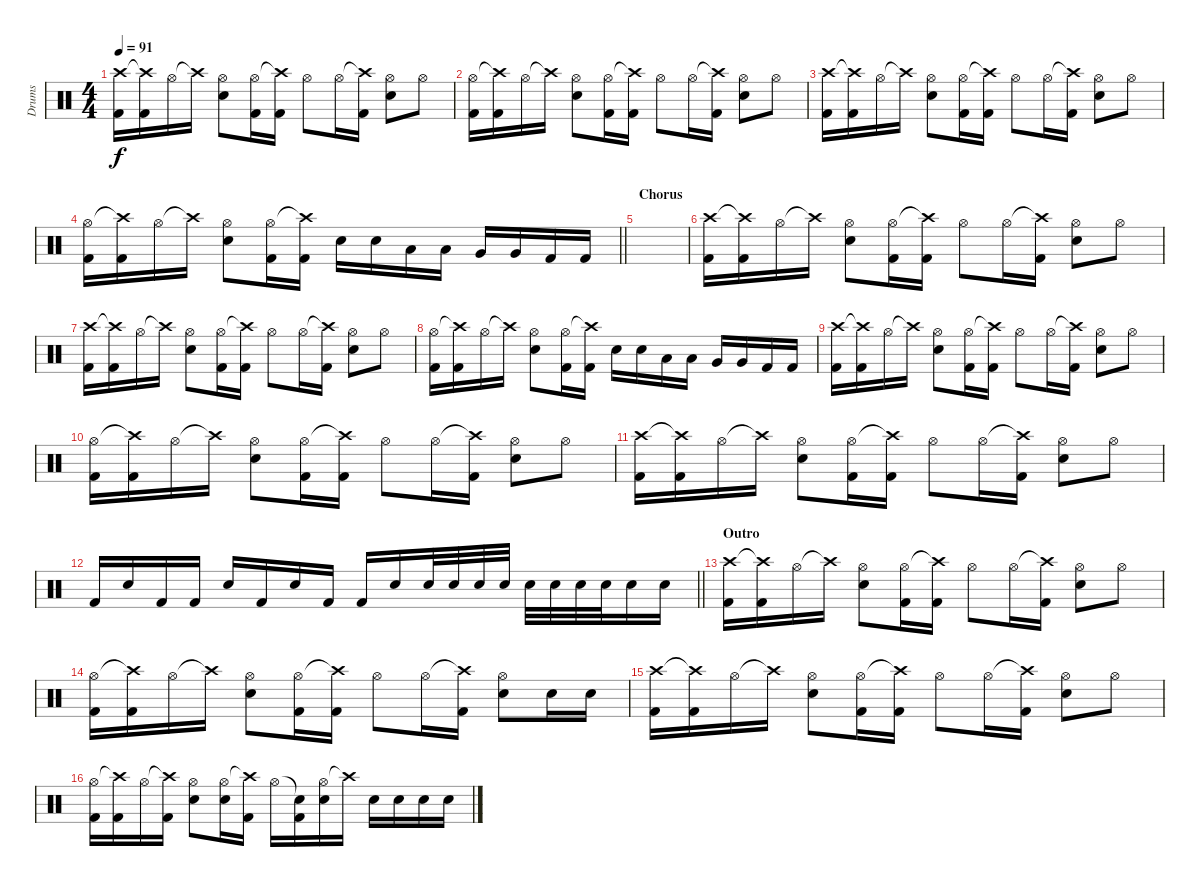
\track ("Drums" "Drums") {instrument percussion}
\staff {score}
\articulation defaults
\ts (4 4)
\tempo 91
\clef neutral
\ks c
("Crash high (hit)" "Kick (hit) 2").16{dy f} ("Crash high (hit)"{t} "Kick (hit) 2").16 "Hi-Hat (open)".16 "Crash high (hit)"{t}.16 ("Hi-Hat (open)" "Electric Snare (hit)").8 ("Hi-Hat (open)" "Kick (hit) 2").16 ("Crash high (hit)"{t} "Kick (hit) 2").16 "Hi-Hat (open)".8 "Hi-Hat (open)".16 ("Crash high (hit)"{t} "Kick (hit) 2").16 ("Hi-Hat (open)" "Electric Snare (hit)").8 "Hi-Hat (open)".8 |
("Hi-Hat (open)" "Kick (hit) 2").16 ("Crash high (hit)"{t} "Kick (hit) 2").16 "Hi-Hat (open)".16 "Crash high (hit)"{t}.16 ("Hi-Hat (open)" "Electric Snare (hit)").8 ("Hi-Hat (open)" "Kick (hit) 2").16 ("Crash high (hit)"{t} "Kick (hit) 2").16 "Hi-Hat (open)".8 "Hi-Hat (open)".16 ("Crash high (hit)"{t} "Kick (hit) 2").16 ("Hi-Hat (open)" "Electric Snare (hit)").8 "Hi-Hat (open)".8 |
("Crash high (hit)" "Kick (hit) 2").16 ("Crash high (hit)"{t} "Kick (hit) 2").16 "Hi-Hat (open)".16 "Crash high (hit)"{t}.16 ("Hi-Hat (open)" "Electric Snare (hit)").8 ("Hi-Hat (open)" "Kick (hit) 2").16 ("Crash high (hit)"{t} "Kick (hit) 2").16 "Hi-Hat (open)".8 "Hi-Hat (open)".16 ("Crash high (hit)"{t} "Kick (hit) 2").16 ("Hi-Hat (open)" "Electric Snare (hit)").8 "Hi-Hat (open)".8 |
\barLineRight lightlight
("Hi-Hat (open)" "Kick (hit) 2").16 ("Crash high (hit)"{t} "Kick (hit) 2").16 "Hi-Hat (open)".16 "Crash high (hit)"{t}.16 ("Hi-Hat (open)" "Electric Snare (hit)").8 ("Hi-Hat (open)" "Kick (hit) 2").16 ("Crash high (hit)"{t} "Kick (hit) 2").16 "Electric Snare (hit)".16 "Electric Snare (hit)".16 "Low Tom (hit)".16 "Low Tom (hit)".16 "Very Low Tom (hit)".16 "Very Low Tom (hit)".16 "Kick (hit) 2".16 "Kick (hit) 2".16 |
\section ("" "Chorus")
|
("Crash high (hit)" "Kick (hit) 2").16 ("Crash high (hit)"{t} "Kick (hit) 2").16 "Hi-Hat (open)".16 "Crash high (hit)"{t}.16 ("Hi-Hat (open)" "Electric Snare (hit)").8 ("Hi-Hat (open)" "Kick (hit) 2").16 ("Crash high (hit)"{t} "Kick (hit) 2").16 "Hi-Hat (open)".8 "Hi-Hat (open)".16 ("Crash high (hit)"{t} "Kick (hit) 2").16 ("Hi-Hat (open)" "Electric Snare (hit)").8 "Hi-Hat (open)".8 |
("Crash high (hit)" "Kick (hit) 2").16 ("Crash high (hit)"{t} "Kick (hit) 2").16 "Hi-Hat (open)".16 "Crash high (hit)"{t}.16 ("Hi-Hat (open)" "Electric Snare (hit)").8 ("Hi-Hat (open)" "Kick (hit) 2").16 ("Crash high (hit)"{t} "Kick (hit) 2").16 "Hi-Hat (open)".8 "Hi-Hat (open)".16 ("Crash high (hit)"{t} "Kick (hit) 2").16 ("Hi-Hat (open)" "Electric Snare (hit)").8 "Hi-Hat (open)".8 |
("Hi-Hat (open)" "Kick (hit) 2").16 ("Crash high (hit)"{t} "Kick (hit) 2").16 "Hi-Hat (open)".16 "Crash high (hit)"{t}.16 ("Hi-Hat (open)" "Electric Snare (hit)").8 ("Hi-Hat (open)" "Kick (hit) 2").16 ("Crash high (hit)"{t} "Kick (hit) 2").16 "Electric Snare (hit)".16 "Electric Snare (hit)".16 "Low Tom (hit)".16 "Low Tom (hit)".16 "Very Low Tom (hit)".16 "Very Low Tom (hit)".16 "Kick (hit) 2".16 "Kick (hit) 2".16 |
("Crash high (hit)" "Kick (hit) 2").16 ("Crash high (hit)"{t} "Kick (hit) 2").16 "Hi-Hat (open)".16 "Crash high (hit)"{t}.16 ("Hi-Hat (open)" "Electric Snare (hit)").8 ("Hi-Hat (open)" "Kick (hit) 2").16 ("Crash high (hit)"{t} "Kick (hit) 2").16 "Hi-Hat (open)".8 "Hi-Hat (open)".16 ("Crash high (hit)"{t} "Kick (hit) 2").16 ("Hi-Hat (open)" "Electric Snare (hit)").8 "Hi-Hat (open)".8 |
("Hi-Hat (open)" "Kick (hit) 2").16 ("Crash high (hit)"{t} "Kick (hit) 2").16 "Hi-Hat (open)".16 "Crash high (hit)"{t}.16 ("Hi-Hat (open)" "Electric Snare (hit)").8 ("Hi-Hat (open)" "Kick (hit) 2").16 ("Crash high (hit)"{t} "Kick (hit) 2").16 "Hi-Hat (open)".8 "Hi-Hat (open)".16 ("Crash high (hit)"{t} "Kick (hit) 2").16 ("Hi-Hat (open)" "Electric Snare (hit)").8 "Hi-Hat (open)".8 |
("Crash high (hit)" "Kick (hit) 2").16 ("Crash high (hit)"{t} "Kick (hit) 2").16 "Hi-Hat (open)".16 "Crash high (hit)"{t}.16 ("Hi-Hat (open)" "Electric Snare (hit)").8 ("Hi-Hat (open)" "Kick (hit) 2").16 ("Crash high (hit)"{t} "Kick (hit) 2").16 "Hi-Hat (open)".8 "Hi-Hat (open)".16 ("Crash high (hit)"{t} "Kick (hit) 2").16 ("Hi-Hat (open)" "Electric Snare (hit)").8 "Hi-Hat (open)".8 |
\barLineRight lightlight "Kick (hit) 2".16 "Electric Snare (hit)".16 "Kick (hit) 2".16 "Kick (hit) 2".16 "Electric Snare (hit)".16 "Kick (hit) 2".16 "Electric Snare (hit)".16 "Kick (hit) 2".16 "Kick (hit) 2".16 "Electric Snare (hit)".16 "Electric Snare (hit)".32 "Electric Snare (hit)".32 "Electric Snare (hit)".32 "Electric Snare (hit)".32 "Electric Snare (hit)".32 "Electric Snare (hit)".32 "Electric Snare (hit)".32 "Electric Snare (hit)".32 "Electric Snare (hit)".16 "Electric Snare (hit)".16
|
\section ("" "Outro")
("Crash high (hit)" "Kick (hit) 2").16 ("Crash high (hit)"{t} "Kick (hit) 2").16 "Hi-Hat (open)".16 "Crash high (hit)"{t}.16 ("Hi-Hat (open)" "Electric Snare (hit)").8 ("Hi-Hat (open)" "Kick (hit) 2").16 ("Crash high (hit)"{t} "Kick (hit) 2").16 "Hi-Hat (open)".8 "Hi-Hat (open)".16 ("Crash high (hit)"{t} "Kick (hit) 2").16 ("Hi-Hat (open)" "Electric Snare (hit)").8 "Hi-Hat (open)".8 |
("Hi-Hat (open)" "Kick (hit) 2").16 ("Crash high (hit)"{t} "Kick (hit) 2").16 "Hi-Hat (open)".16 "Crash high (hit)"{t}.16 ("Hi-Hat (open)" "Electric Snare (hit)").8 ("Hi-Hat (open)" "Kick (hit) 2").16 ("Crash high (hit)"{t} "Kick (hit) 2").16 "Hi-Hat (open)".8 "Hi-Hat (open)".16 ("Crash high (hit)"{t} "Kick (hit) 2").16 ("Hi-Hat (open)" "Electric Snare (hit)").8 "Electric Snare (hit)".16 "Electric Snare (hit)".16 |
("Crash high (hit)" "Kick (hit) 2").16 ("Crash high (hit)"{t} "Kick (hit) 2").16 "Hi-Hat (open)".16 "Crash high (hit)"{t}.16 ("Hi-Hat (open)" "Electric Snare (hit)").8 ("Hi-Hat (open)" "Kick (hit) 2").16 ("Crash high (hit)"{t} "Kick (hit) 2").16 "Hi-Hat (open)".8 "Hi-Hat (open)".16 ("Crash high (hit)"{t} "Kick (hit) 2").16 ("Hi-Hat (open)" "Electric Snare (hit)").8 "Hi-Hat (open)".8 |
("Hi-Hat (open)" "Kick (hit) 2").16 ("Crash high (hit)"{t} "Kick (hit) 2").16 "Hi-Hat (open)".16 ("Crash high (hit)"{t} "Kick (hit) 2").16 ("Hi-Hat (open)" "Electric Snare (hit)").8 ("Hi-Hat (open)" "Electric Snare (hit)").16 ("Crash high (hit)"{t} "Kick (hit) 2").16 "Hi-Hat (open)".16 ("Snare (hit)"{t} "Kick (hit) 2").16 ("Hi-Hat (open)" "Electric Snare (hit)").16 "Crash high (hit)"{t}.16 "Electric Snare (hit)".16 "Electric Snare (hit)".16 "Electric Snare (hit)".16 "Electric Snare (hit)".16
